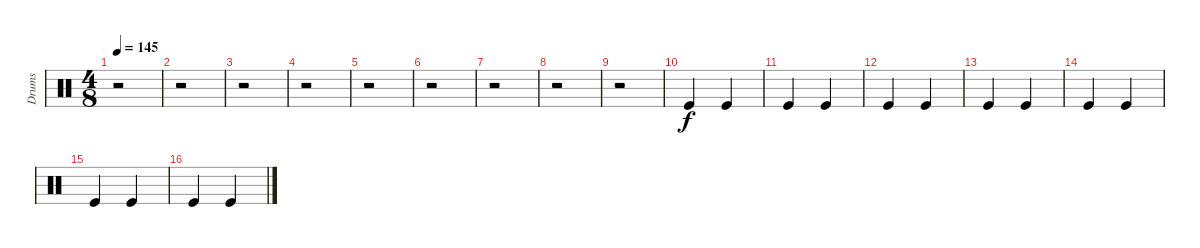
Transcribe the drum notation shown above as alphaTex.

\track ("Drums" "Drums") {instrument percussion}
\staff {score}
\articulation defaults
\ts (4 8)
\tempo 145
\clef neutral
\ks c
r.2{dy f} |
r.2 |
r.2 |
r.2 |
r.2 |
r.2 |
r.2 |
r.2 |
r.2 |
"Kick (hit)".4 "Kick (hit)".4 |
"Kick (hit)".4 "Kick (hit)".4 |
"Kick (hit)".4 "Kick (hit)".4 |
"Kick (hit)".4 "Kick (hit)".4 |
"Kick (hit)".4 "Kick (hit)".4 |
"Kick (hit)".4 "Kick (hit)".4 |
"Kick (hit)".4 "Kick (hit)".4
